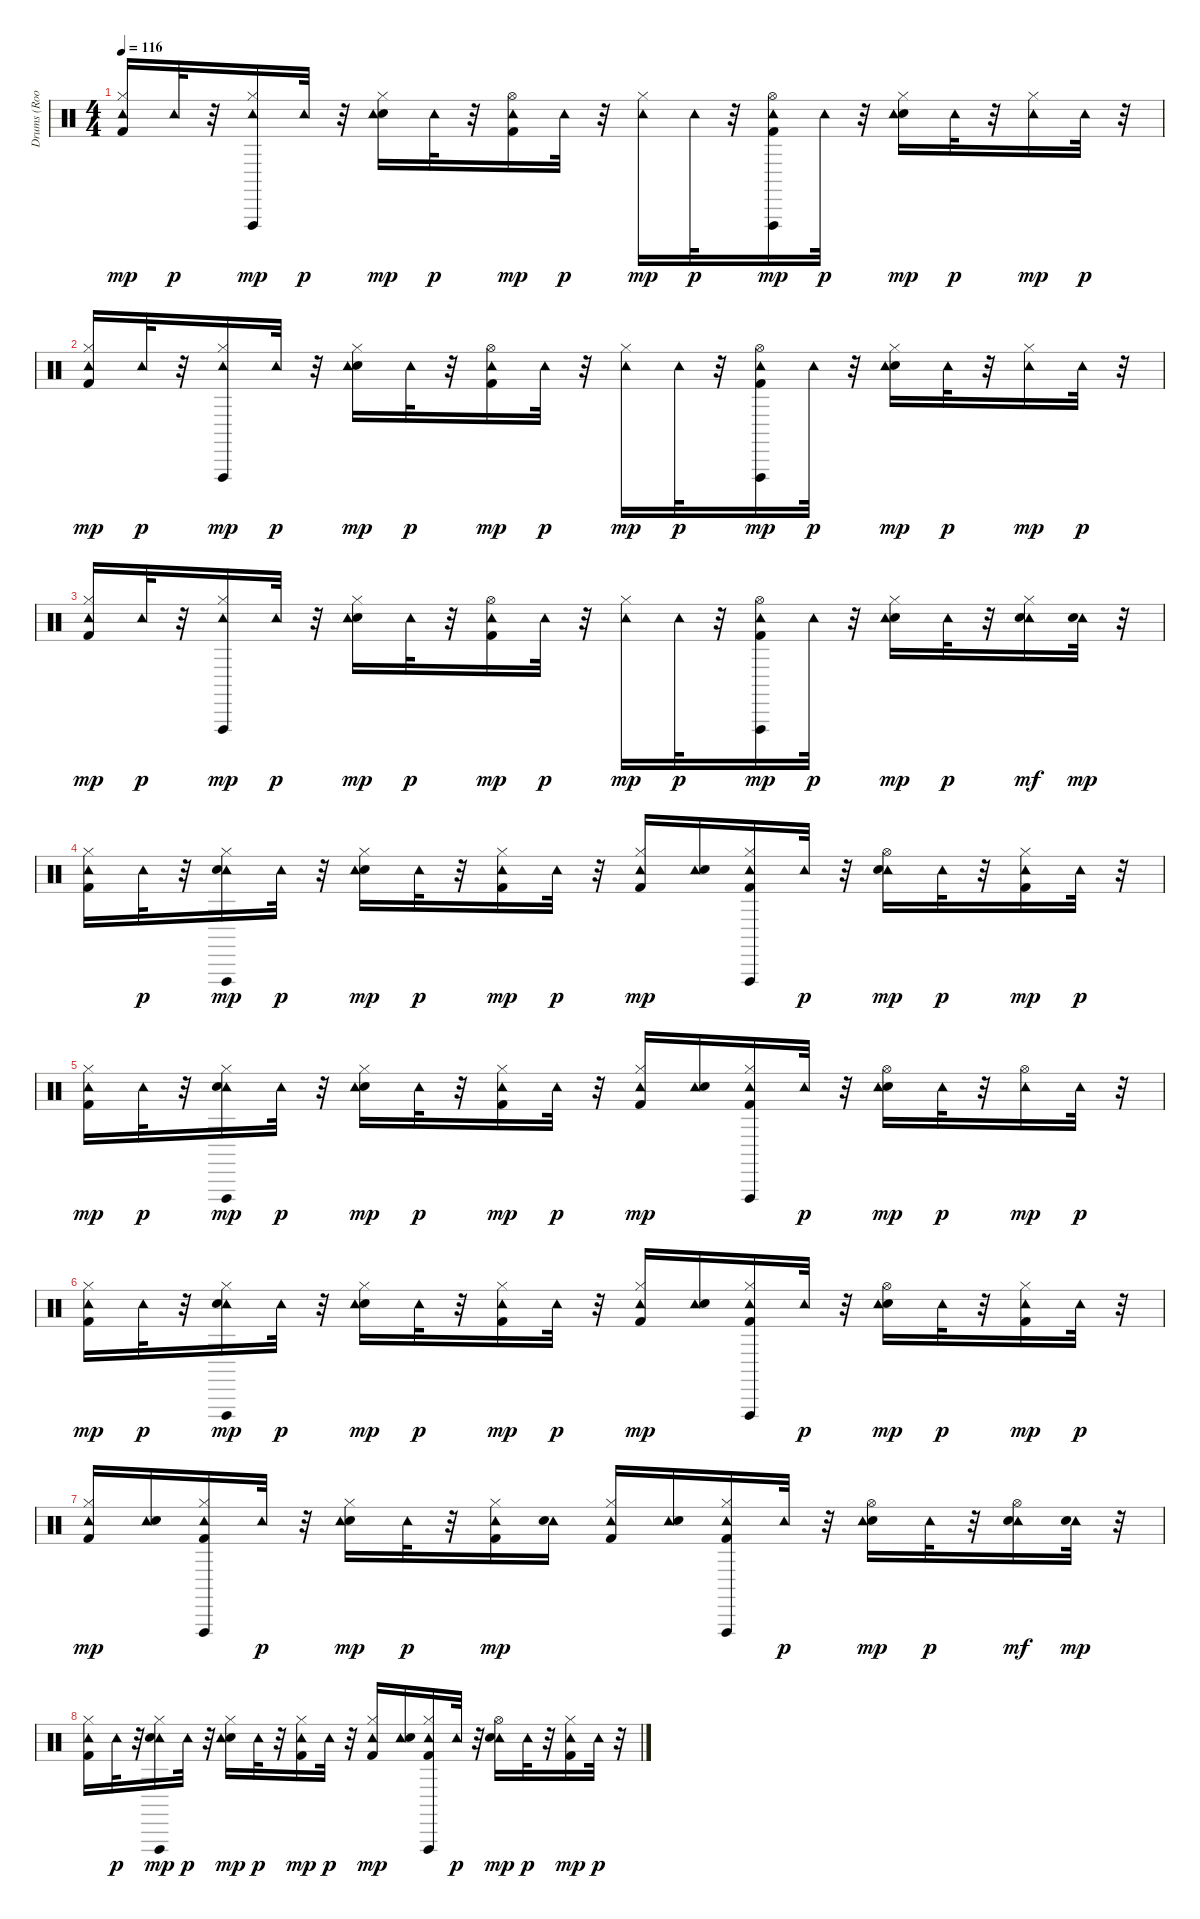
\track ("Drums (Room Kit)    " "Drums (Roo") {instrument percussion}
\staff {score}
\articulation defaults
\ts (4 4)
\tempo 116
\clef neutral
\ks c
("Hi-Hat (closed)" "Kick (hit) 2" "Tambourine (hit)").16{dy mp} "Tambourine (hit)".32{dy p} r.32 ("Hi-Hat (closed)" "Tambourine (hit)" "Vibraslap (hit)").16{dy mp} "Tambourine (hit)".32{dy p} r.32 ("Hi-Hat (closed)" "Snare (hit) 2" "Tambourine (hit)").16{dy mp} "Tambourine (hit)".32{dy p} r.32 ("Kick (hit) 2" "Tambourine (hit)" "Hi-Hat (open)").16{dy mp} "Tambourine (hit)".32{dy p} r.32 ("Hi-Hat (closed)" "Tambourine (hit)").16{dy mp} "Tambourine (hit)".32{dy p} r.32 ("Kick (hit) 2" "Tambourine (hit)" "Vibraslap (hit)" "Hi-Hat (open)").16{dy mp} "Tambourine (hit)".32{dy p} r.32 ("Hi-Hat (closed)" "Snare (hit) 2" "Tambourine (hit)").16{dy mp} "Tambourine (hit)".32{dy p} r.32 ("Hi-Hat (closed)" "Tambourine (hit)").16{dy mp} "Tambourine (hit)".32{dy p} r.32 |
("Kick (hit) 2" "Hi-Hat (closed)" "Tambourine (hit)").16{dy mp} "Tambourine (hit)".32{dy p} r.32 ("Hi-Hat (closed)" "Tambourine (hit)" "Vibraslap (hit)").16{dy mp} "Tambourine (hit)".32{dy p} r.32 ("Snare (hit) 2" "Hi-Hat (closed)" "Tambourine (hit)").16{dy mp} "Tambourine (hit)".32{dy p} r.32 ("Kick (hit) 2" "Tambourine (hit)" "Hi-Hat (open)").16{dy mp} "Tambourine (hit)".32{dy p} r.32 ("Hi-Hat (closed)" "Tambourine (hit)").16{dy mp} "Tambourine (hit)".32{dy p} r.32 ("Kick (hit) 2" "Tambourine (hit)" "Vibraslap (hit)" "Hi-Hat (open)").16{dy mp} "Tambourine (hit)".32{dy p} r.32 ("Snare (hit) 2" "Hi-Hat (closed)" "Tambourine (hit)").16{dy mp} "Tambourine (hit)".32{dy p} r.32 ("Hi-Hat (closed)" "Tambourine (hit)").16{dy mp} "Tambourine (hit)".32{dy p} r.32 |
("Hi-Hat (closed)" "Kick (hit) 2" "Tambourine (hit)").16{dy mp} "Tambourine (hit)".32{dy p} r.32 ("Hi-Hat (closed)" "Tambourine (hit)" "Vibraslap (hit)").16{dy mp} "Tambourine (hit)".32{dy p} r.32 ("Hi-Hat (closed)" "Snare (hit) 2" "Tambourine (hit)").16{dy mp} "Tambourine (hit)".32{dy p} r.32 ("Kick (hit) 2" "Tambourine (hit)" "Hi-Hat (open)").16{dy mp} "Tambourine (hit)".32{dy p} r.32 ("Hi-Hat (closed)" "Tambourine (hit)").16{dy mp} "Tambourine (hit)".32{dy p} r.32 ("Kick (hit) 2" "Tambourine (hit)" "Vibraslap (hit)" "Hi-Hat (open)").16{dy mp} "Tambourine (hit)".32{dy p} r.32 ("Hi-Hat (closed)" "Snare (hit) 2" "Tambourine (hit)").16{dy mp} "Tambourine (hit)".32{dy p} r.32 ("Hi-Hat (closed)" "Tambourine (hit)" "Snare (hit) 2").16{dy mf} ("Tambourine (hit)" "Snare (hit) 2").32{dy mp} r.32 |
("Kick (hit) 2" "Hi-Hat (closed)" "Tambourine (hit)").16 "Tambourine (hit)".32{dy p} r.32 ("Hi-Hat (closed)" "Tambourine (hit)" "Vibraslap (hit)" "Snare (hit) 2").16{dy mp} "Tambourine (hit)".32{dy p} r.32 ("Snare (hit) 2" "Hi-Hat (closed)" "Tambourine (hit)").16{dy mp} "Tambourine (hit)".32{dy p} r.32 ("Kick (hit) 2" "Tambourine (hit)" "Hi-Hat (closed)").16{dy mp} "Tambourine (hit)".32{dy p} r.32 ("Hi-Hat (closed)" "Tambourine (hit)" "Kick (hit) 2").16{dy mp} ("Tambourine (hit)" "Snare (hit) 2").16 ("Tambourine (hit)" "Vibraslap (hit)" "Hi-Hat (closed)" "Kick (hit) 2").16 "Tambourine (hit)".32{dy p} r.32 ("Tambourine (hit)" "Hi-Hat (open)" "Snare (hit) 2").16{dy mp} "Tambourine (hit)".32{dy p} r.32 ("Hi-Hat (closed)" "Tambourine (hit)" "Kick (hit) 2").16{dy mp} "Tambourine (hit)".32{dy p} r.32 |
("Hi-Hat (closed)" "Kick (hit) 2" "Tambourine (hit)").16{dy mp} "Tambourine (hit)".32{dy p} r.32 ("Hi-Hat (closed)" "Tambourine (hit)" "Vibraslap (hit)" "Snare (hit) 2").16{dy mp} "Tambourine (hit)".32{dy p} r.32 ("Hi-Hat (closed)" "Snare (hit) 2" "Tambourine (hit)").16{dy mp} "Tambourine (hit)".32{dy p} r.32 ("Kick (hit) 2" "Tambourine (hit)" "Hi-Hat (closed)").16{dy mp} "Tambourine (hit)".32{dy p} r.32 ("Hi-Hat (closed)" "Tambourine (hit)" "Kick (hit) 2").16{dy mp} ("Tambourine (hit)" "Snare (hit) 2").16 ("Kick (hit) 2" "Tambourine (hit)" "Vibraslap (hit)" "Hi-Hat (closed)").16 "Tambourine (hit)".32{dy p} r.32 ("Snare (hit) 2" "Tambourine (hit)" "Hi-Hat (open)").16{dy mp} "Tambourine (hit)".32{dy p} r.32 ("Tambourine (hit)" "Hi-Hat (open)").16{dy mp} "Tambourine (hit)".32{dy p} r.32 |
("Kick (hit) 2" "Hi-Hat (closed)" "Tambourine (hit)").16{dy mp} "Tambourine (hit)".32{dy p} r.32 ("Hi-Hat (closed)" "Tambourine (hit)" "Vibraslap (hit)" "Snare (hit) 2").16{dy mp} "Tambourine (hit)".32{dy p} r.32 ("Snare (hit) 2" "Hi-Hat (closed)" "Tambourine (hit)").16{dy mp} "Tambourine (hit)".32{dy p} r.32 ("Kick (hit) 2" "Tambourine (hit)" "Hi-Hat (closed)").16{dy mp} "Tambourine (hit)".32{dy p} r.32 ("Hi-Hat (closed)" "Tambourine (hit)" "Kick (hit) 2").16{dy mp} ("Tambourine (hit)" "Snare (hit) 2").16 ("Kick (hit) 2" "Tambourine (hit)" "Vibraslap (hit)" "Hi-Hat (closed)").16 "Tambourine (hit)".32{dy p} r.32 ("Snare (hit) 2" "Tambourine (hit)" "Hi-Hat (open)").16{dy mp} "Tambourine (hit)".32{dy p} r.32 ("Hi-Hat (closed)" "Tambourine (hit)" "Kick (hit) 2").16{dy mp} "Tambourine (hit)".32{dy p} r.32 |
("Hi-Hat (closed)" "Kick (hit) 2" "Tambourine (hit)").16{dy mp} ("Tambourine (hit)" "Snare (hit) 2").16 ("Hi-Hat (closed)" "Tambourine (hit)" "Vibraslap (hit)" "Kick (hit) 2").16 "Tambourine (hit)".32{dy p} r.32 ("Snare (hit) 2" "Tambourine (hit)" "Hi-Hat (closed)").16{dy mp} "Tambourine (hit)".32{dy p} r.32 ("Kick (hit) 2" "Tambourine (hit)" "Hi-Hat (closed)").16{dy mp} ("Tambourine (hit)" "Snare (hit) 2").16 ("Hi-Hat (closed)" "Tambourine (hit)" "Kick (hit) 2").16 ("Tambourine (hit)" "Snare (hit) 2").16 ("Kick (hit) 2" "Tambourine (hit)" "Vibraslap (hit)" "Hi-Hat (closed)").16 "Tambourine (hit)".32{dy p} r.32 ("Snare (hit) 2" "Tambourine (hit)" "Hi-Hat (open)").16{dy mp} "Tambourine (hit)".32{dy p} r.32 ("Tambourine (hit)" "Hi-Hat (open)" "Snare (hit) 2").16{dy mf} ("Tambourine (hit)" "Snare (hit) 2").32{dy mp} r.32 |
("Kick (hit) 2" "Hi-Hat (closed)" "Tambourine (hit)").16 "Tambourine (hit)".32{dy p} r.32 ("Hi-Hat (closed)" "Tambourine (hit)" "Vibraslap (hit)" "Snare (hit) 2").16{dy mp} "Tambourine (hit)".32{dy p} r.32 ("Snare (hit) 2" "Hi-Hat (closed)" "Tambourine (hit)").16{dy mp} "Tambourine (hit)".32{dy p} r.32 ("Kick (hit) 2" "Tambourine (hit)" "Hi-Hat (closed)").16{dy mp} "Tambourine (hit)".32{dy p} r.32 ("Hi-Hat (closed)" "Tambourine (hit)" "Kick (hit) 2").16{dy mp} ("Tambourine (hit)" "Snare (hit) 2").16 ("Tambourine (hit)" "Vibraslap (hit)" "Hi-Hat (closed)" "Kick (hit) 2").16 "Tambourine (hit)".32{dy p} r.32 ("Tambourine (hit)" "Hi-Hat (open)" "Snare (hit) 2").16{dy mp} "Tambourine (hit)".32{dy p} r.32 ("Hi-Hat (closed)" "Tambourine (hit)" "Kick (hit) 2").16{dy mp} "Tambourine (hit)".32{dy p} r.32
